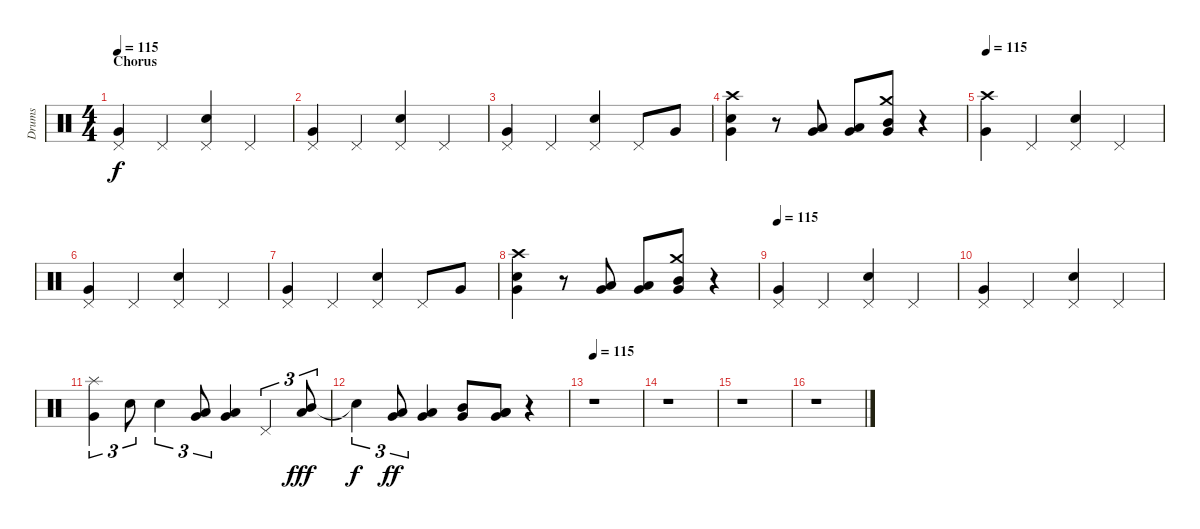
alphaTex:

\track ("Drums" "Drums") {instrument percussion}
\staff {score}
\articulation defaults
\ts (4 4)
\section ("" "Chorus")
\tempo 115
\clef neutral
\ks c
("Pedal Hi-Hat (hit)" "Very Low Tom (hit)").4{dy f} "Pedal Hi-Hat (hit)".4 ("Pedal Hi-Hat (hit)" "Electric Snare (hit)").4 "Pedal Hi-Hat (hit)".4 |
("Pedal Hi-Hat (hit)" "Very Low Tom (hit)").4 "Pedal Hi-Hat (hit)".4 ("Pedal Hi-Hat (hit)" "Electric Snare (hit)").4 "Pedal Hi-Hat (hit)".4 |
("Pedal Hi-Hat (hit)" "Very Low Tom (hit)").4 "Pedal Hi-Hat (hit)".4 ("Pedal Hi-Hat (hit)" "Electric Snare (hit)").4 "Pedal Hi-Hat (hit)".8 "Very Low Tom (hit)".8 |
("Crash high (hit)" "Electric Snare (hit)" "Very Low Tom (hit)").4 r.8 ("Low Tom (hit)" "Very Low Tom (hit)").8 ("Low Tom (hit)" "Very Low Tom (hit)").8 ("Crash medium (hit)" "Mid Tom (hit)" "Very Low Tom (hit)").8 r.4 |
\tempo 115
("Crash high (hit)" "Very Low Tom (hit)").4 "Pedal Hi-Hat (hit)".4 ("Pedal Hi-Hat (hit)" "Electric Snare (hit)").4 "Pedal Hi-Hat (hit)".4 |
("Pedal Hi-Hat (hit)" "Very Low Tom (hit)").4 "Pedal Hi-Hat (hit)".4 ("Pedal Hi-Hat (hit)" "Electric Snare (hit)").4 "Pedal Hi-Hat (hit)".4 |
("Pedal Hi-Hat (hit)" "Very Low Tom (hit)").4 "Pedal Hi-Hat (hit)".4 ("Pedal Hi-Hat (hit)" "Electric Snare (hit)").4 "Pedal Hi-Hat (hit)".8 "Very Low Tom (hit)".8 |
("Crash high (hit)" "Electric Snare (hit)" "Very Low Tom (hit)").4 r.8 ("Low Tom (hit)" "Very Low Tom (hit)").8 ("Low Tom (hit)" "Very Low Tom (hit)").8 ("Crash medium (hit)" "Mid Tom (hit)" "Very Low Tom (hit)").8 r.4 |
\tempo 115
("Pedal Hi-Hat (hit)" "Very Low Tom (hit)").4 "Pedal Hi-Hat (hit)".4 ("Pedal Hi-Hat (hit)" "Electric Snare (hit)").4 "Pedal Hi-Hat (hit)".4 |
("Pedal Hi-Hat (hit)" "Very Low Tom (hit)").4 "Pedal Hi-Hat (hit)".4 ("Pedal Hi-Hat (hit)" "Electric Snare (hit)").4 "Pedal Hi-Hat (hit)".4 |
("Splash (hit)" "Very Low Tom (hit)").4{tu (3 2)} "Electric Snare (hit)".8{tu (3 2)} "Electric Snare (hit)".4{tu (3 2)} ("Low Tom (hit)" "Very Low Tom (hit)").8{tu (3 2)} ("Low Tom (hit)" "Very Low Tom (hit)").4 "Pedal Hi-Hat (hit)".4{tu (3 2)} ("Mid Tom (hit)" "Low Floor Tom (hit)").8{tu (3 2) dy fff} |
"Snare (hit)"{t}.4{tu (3 2) dy f} ("Low Tom (hit)" "Very Low Tom (hit)").8{tu (3 2) dy ff} ("Low Tom (hit)" "Very Low Tom (hit)").4 ("Mid Tom (hit)" "Very Low Tom (hit)").8 ("Low Tom (hit)" "Low Floor Tom (hit)" "Very Low Tom (hit)").8 r.4 |
\tempo 115
r.1 |
r.1 |
r.1 |
r.1
